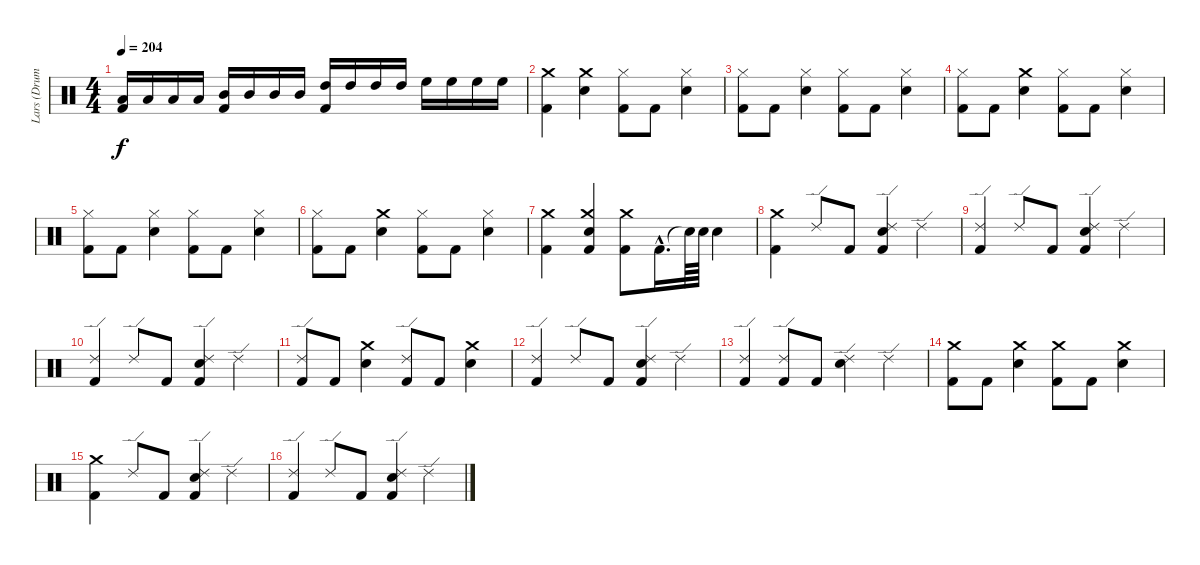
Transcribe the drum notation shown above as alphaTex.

\track ("Lars (Drums)" "Lars (Drum") {instrument percussion}
\staff {score}
\articulation defaults
\ts (4 4)
\tempo 204
\clef neutral
\ks c
("Low Tom (hit)" "Kick (hit) 2").16{dy f} "Low Tom (hit)".16 "Low Tom (hit)".16 "Low Tom (hit)".16 ("Mid Tom (hit)" "Kick (hit) 2").16 "Mid Tom (hit)".16 "Mid Tom (hit)".16 "Mid Tom (hit)".16 ("High Tom (hit)" "Kick (hit) 2").16 "High Tom (hit)".16 "High Tom (hit)".16 "High Tom (hit)".16 "High Floor Tom (hit)".16 "High Floor Tom (hit)".16 "High Floor Tom (hit)".16 "High Floor Tom (hit)".16 |
("Kick (hit) 2" "Crash medium (hit)").4 ("Snare (hit) 2" "Crash medium (hit)").4 ("Hi-Hat (closed)" "Kick (hit) 2").8 "Kick (hit) 2".8 ("Hi-Hat (closed)" "Snare (hit) 2").4 |
("Kick (hit) 2" "Hi-Hat (closed)").8 "Kick (hit) 2".8 ("Snare (hit) 2" "Hi-Hat (closed)").4 ("Kick (hit) 2" "Hi-Hat (closed)").8 "Kick (hit) 2".8 ("Snare (hit) 2" "Hi-Hat (closed)").4 |
("Kick (hit) 2" "Hi-Hat (closed)").8 "Kick (hit) 2".8 ("Crash medium (hit)" "Snare (hit) 2").4 ("Kick (hit) 2" "Hi-Hat (closed)").8 "Kick (hit) 2".8 ("Snare (hit) 2" "Hi-Hat (closed)").4 |
("Kick (hit) 2" "Hi-Hat (closed)").8 "Kick (hit) 2".8 ("Snare (hit) 2" "Hi-Hat (closed)").4 ("Kick (hit) 2" "Hi-Hat (closed)").8 "Kick (hit) 2".8 ("Snare (hit) 2" "Hi-Hat (closed)").4 |
("Kick (hit) 2" "Hi-Hat (closed)").8 "Kick (hit) 2".8 ("Crash medium (hit)" "Snare (hit) 2").4 ("Kick (hit) 2" "Hi-Hat (closed)").8 "Kick (hit) 2".8 ("Snare (hit) 2" "Hi-Hat (closed)").4 |
("Kick (hit) 2" "Crash medium (hit)").4 ("Kick (hit) 2" "Snare (hit) 2" "Crash medium (hit)").4 ("Kick (hit) 2" "Crash medium (hit)").8 "Kick (hit) 2"{hac}.16{d} "Snare (hit)"{t}.64 "Snare (hit) 2".64 "Snare (hit) 2".4 |
("Kick (hit) 2" "Crash medium (hit)").4 "Ride (edge) 2".8 "Kick (hit) 2".8 ("Kick (hit) 2" "Snare (hit) 2" "Ride (edge) 2").4 "Ride (edge) 2".4 |
("Kick (hit) 2" "Ride (edge) 2").4 "Ride (edge) 2".8 "Kick (hit) 2".8 ("Kick (hit) 2" "Snare (hit) 2" "Ride (edge) 2").4 "Ride (edge) 2".4 |
("Kick (hit) 2" "Ride (edge) 2").4 "Ride (edge) 2".8 "Kick (hit) 2".8 ("Kick (hit) 2" "Snare (hit) 2" "Ride (edge) 2").4 "Ride (edge) 2".4 |
("Ride (edge) 2" "Kick (hit) 2").8 "Kick (hit) 2".8 ("Snare (hit) 2" "Crash medium (hit)").4 ("Ride (edge) 2" "Kick (hit) 2").8 "Kick (hit) 2".8 ("Snare (hit) 2" "Crash medium (hit)").4 |
("Ride (edge) 2" "Kick (hit) 2").4 "Ride (edge) 2".8 "Kick (hit) 2".8 ("Ride (edge) 2" "Snare (hit) 2" "Kick (hit) 2").4 "Ride (edge) 2".4 |
("Kick (hit) 2" "Ride (edge) 2").4 ("Ride (edge) 2" "Kick (hit) 2").8 "Kick (hit) 2".8 ("Snare (hit) 2" "Ride (edge) 2").4 "Ride (edge) 2".4 |
("Kick (hit) 2" "Crash medium (hit)").8 "Kick (hit) 2".8 ("Snare (hit) 2" "Crash medium (hit)").4 ("Kick (hit) 2" "Crash medium (hit)").8 "Kick (hit) 2".8 ("Snare (hit) 2" "Crash medium (hit)").4 |
("Kick (hit) 2" "Crash medium (hit)").4 "Ride (edge) 2".8 "Kick (hit) 2".8 ("Kick (hit) 2" "Snare (hit) 2" "Ride (edge) 2").4 "Ride (edge) 2".4 |
("Kick (hit) 2" "Ride (edge) 2").4 "Ride (edge) 2".8 "Kick (hit) 2".8 ("Kick (hit) 2" "Snare (hit) 2" "Ride (edge) 2").4 "Ride (edge) 2".4
